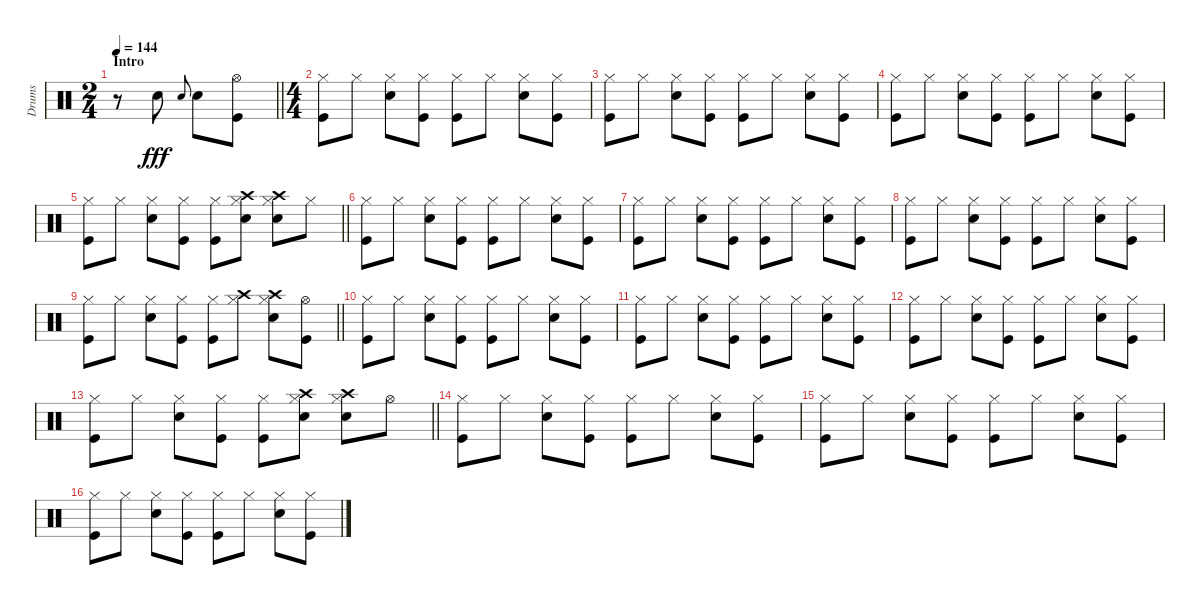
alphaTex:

\track ("Drums" "Drums") {instrument percussion}
\staff {score}
\articulation defaults
\ts (2 4)
\section ("" "Intro")
\tempo 144
\clef neutral
\barLineRight lightlight
\ks c
r.8{dy fff} "Snare (hit) 2".8 "Snare (hit) 2".8{gr onbeat} "Snare (hit) 2".8 ("Hi-Hat (open)" "Kick (hit)").8 |
\ts (4 4)
("Hi-Hat (closed)" "Kick (hit)").8 "Hi-Hat (closed)".8 ("Snare (hit) 2" "Hi-Hat (closed)").8 ("Kick (hit)" "Hi-Hat (closed)").8 ("Kick (hit)" "Hi-Hat (closed)").8 "Hi-Hat (closed)".8 ("Snare (hit) 2" "Hi-Hat (closed)").8 ("Hi-Hat (closed)" "Kick (hit)").8 |
("Hi-Hat (closed)" "Kick (hit)").8 "Hi-Hat (closed)".8 ("Snare (hit) 2" "Hi-Hat (closed)").8 ("Kick (hit)" "Hi-Hat (closed)").8 ("Kick (hit)" "Hi-Hat (closed)").8 "Hi-Hat (closed)".8 ("Snare (hit) 2" "Hi-Hat (closed)").8 ("Hi-Hat (closed)" "Kick (hit)").8 |
("Hi-Hat (closed)" "Kick (hit)").8 "Hi-Hat (closed)".8 ("Snare (hit) 2" "Hi-Hat (closed)").8 ("Kick (hit)" "Hi-Hat (closed)").8 ("Hi-Hat (closed)" "Kick (hit)").8 "Hi-Hat (closed)".8 ("Snare (hit) 2" "Hi-Hat (closed)").8 ("Hi-Hat (closed)" "Kick (hit)").8 |
\barLineRight lightlight
("Hi-Hat (closed)" "Kick (hit)").8 "Hi-Hat (closed)".8 ("Snare (hit) 2" "Hi-Hat (closed)").8 ("Kick (hit)" "Hi-Hat (closed)").8 ("Kick (hit)" "Hi-Hat (closed)").8 ("Hi-Hat (closed)" "Crash high (hit)" "Snare (hit) 2").8 ("Hi-Hat (closed)" "Crash high (hit)" "Snare (hit) 2").8 "Hi-Hat (closed)".8 |
("Hi-Hat (closed)" "Kick (hit)").8 "Hi-Hat (closed)".8 ("Snare (hit) 2" "Hi-Hat (closed)").8 ("Kick (hit)" "Hi-Hat (closed)").8 ("Kick (hit)" "Hi-Hat (closed)").8 "Hi-Hat (closed)".8 ("Snare (hit) 2" "Hi-Hat (closed)").8 ("Hi-Hat (closed)" "Kick (hit)").8 |
("Hi-Hat (closed)" "Kick (hit)").8 "Hi-Hat (closed)".8 ("Snare (hit) 2" "Hi-Hat (closed)").8 ("Kick (hit)" "Hi-Hat (closed)").8 ("Kick (hit)" "Hi-Hat (closed)").8 "Hi-Hat (closed)".8 ("Snare (hit) 2" "Hi-Hat (closed)").8 ("Hi-Hat (closed)" "Kick (hit)").8 |
("Hi-Hat (closed)" "Kick (hit)").8 "Hi-Hat (closed)".8 ("Snare (hit) 2" "Hi-Hat (closed)").8 ("Kick (hit)" "Hi-Hat (closed)").8 ("Hi-Hat (closed)" "Kick (hit)").8 "Hi-Hat (closed)".8 ("Snare (hit) 2" "Hi-Hat (closed)").8 ("Hi-Hat (closed)" "Kick (hit)").8 |
\barLineRight lightlight
("Kick (hit)" "Hi-Hat (closed)").8 "Hi-Hat (closed)".8 ("Snare (hit) 2" "Hi-Hat (closed)").8 ("Kick (hit)" "Hi-Hat (closed)").8 ("Hi-Hat (closed)" "Kick (hit)").8 ("Crash high (hit)" "Hi-Hat (closed)").8 ("Crash high (hit)" "Snare (hit) 2" "Hi-Hat (closed)").8 ("Hi-Hat (open)" "Kick (hit)").8 |
("Hi-Hat (closed)" "Kick (hit)").8 "Hi-Hat (closed)".8 ("Snare (hit) 2" "Hi-Hat (closed)").8 ("Kick (hit)" "Hi-Hat (closed)").8 ("Kick (hit)" "Hi-Hat (closed)").8 "Hi-Hat (closed)".8 ("Snare (hit) 2" "Hi-Hat (closed)").8 ("Hi-Hat (closed)" "Kick (hit)").8 |
("Hi-Hat (closed)" "Kick (hit)").8 "Hi-Hat (closed)".8 ("Snare (hit) 2" "Hi-Hat (closed)").8 ("Kick (hit)" "Hi-Hat (closed)").8 ("Kick (hit)" "Hi-Hat (closed)").8 "Hi-Hat (closed)".8 ("Snare (hit) 2" "Hi-Hat (closed)").8 ("Hi-Hat (closed)" "Kick (hit)").8 |
("Hi-Hat (closed)" "Kick (hit)").8 "Hi-Hat (closed)".8 ("Snare (hit) 2" "Hi-Hat (closed)").8 ("Kick (hit)" "Hi-Hat (closed)").8 ("Hi-Hat (closed)" "Kick (hit)").8 "Hi-Hat (closed)".8 ("Snare (hit) 2" "Hi-Hat (closed)").8 ("Hi-Hat (closed)" "Kick (hit)").8 |
\barLineRight lightlight
("Kick (hit)" "Hi-Hat (closed)").8 "Hi-Hat (closed)".8 ("Snare (hit) 2" "Hi-Hat (closed)").8 ("Kick (hit)" "Hi-Hat (closed)").8 ("Hi-Hat (closed)" "Kick (hit)").8 ("Crash high (hit)" "Snare (hit) 2" "Hi-Hat (closed)").8 ("Hi-Hat (closed)" "Crash high (hit)" "Snare (hit) 2").8 "Hi-Hat (open)".8 |
("Hi-Hat (closed)" "Kick (hit)").8 "Hi-Hat (closed)".8 ("Snare (hit) 2" "Hi-Hat (closed)").8 ("Kick (hit)" "Hi-Hat (closed)").8 ("Kick (hit)" "Hi-Hat (closed)").8 "Hi-Hat (closed)".8 ("Snare (hit) 2" "Hi-Hat (closed)").8 ("Hi-Hat (closed)" "Kick (hit)").8 |
("Hi-Hat (closed)" "Kick (hit)").8 "Hi-Hat (closed)".8 ("Snare (hit) 2" "Hi-Hat (closed)").8 ("Kick (hit)" "Hi-Hat (closed)").8 ("Kick (hit)" "Hi-Hat (closed)").8 "Hi-Hat (closed)".8 ("Snare (hit) 2" "Hi-Hat (closed)").8 ("Hi-Hat (closed)" "Kick (hit)").8 |
("Hi-Hat (closed)" "Kick (hit)").8 "Hi-Hat (closed)".8 ("Snare (hit) 2" "Hi-Hat (closed)").8 ("Kick (hit)" "Hi-Hat (closed)").8 ("Hi-Hat (closed)" "Kick (hit)").8 "Hi-Hat (closed)".8 ("Snare (hit) 2" "Hi-Hat (closed)").8 ("Hi-Hat (closed)" "Kick (hit)").8
